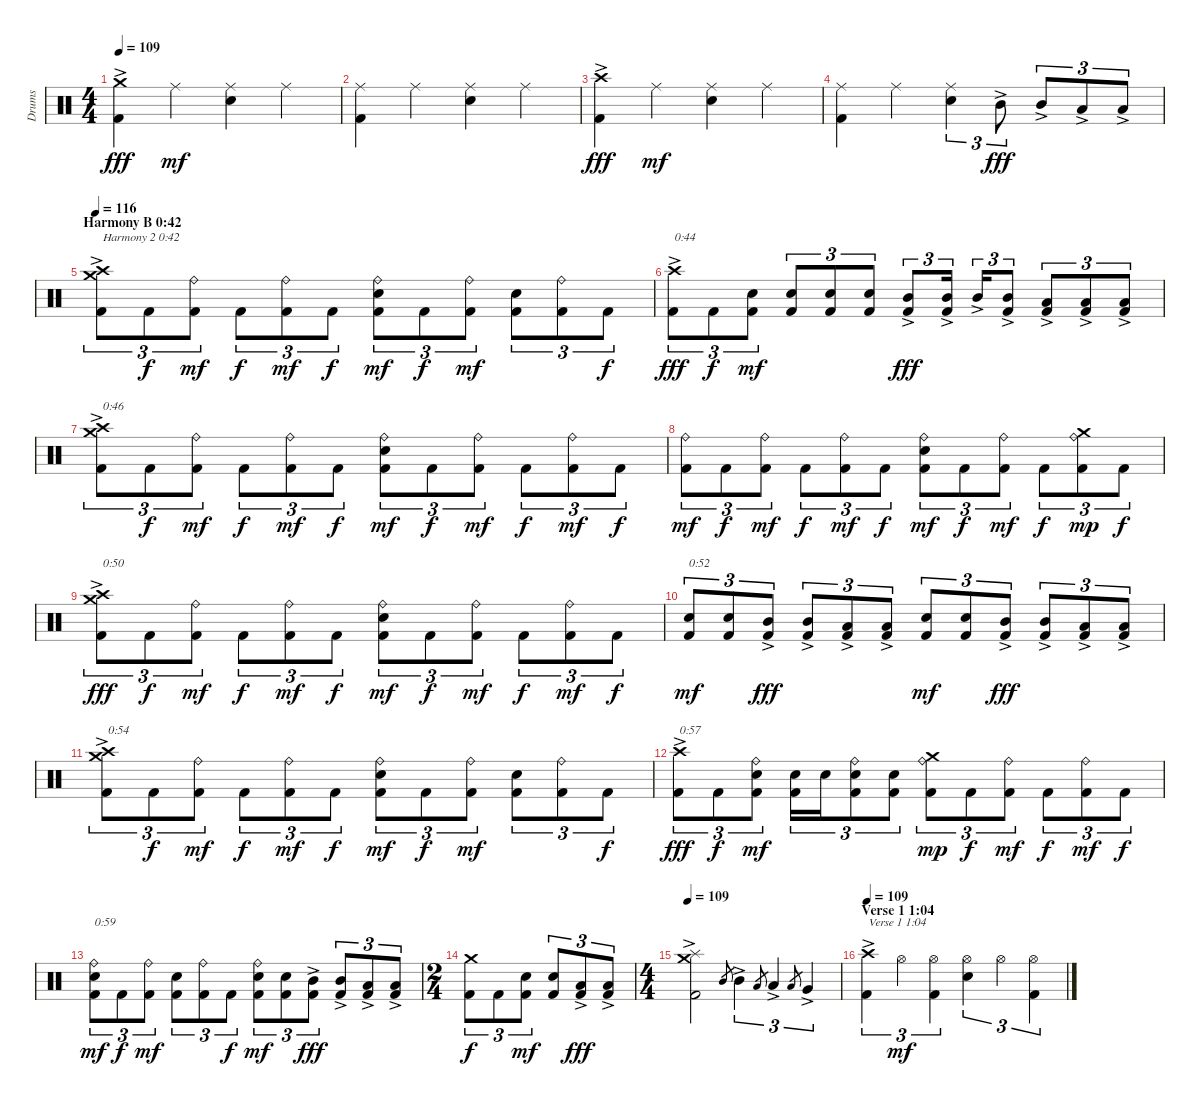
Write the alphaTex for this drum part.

\track ("Drums" "Drums") {instrument percussion}
\staff {score}
\articulation defaults
\ts (4 4)
\tempo 109
\clef neutral
\ks c
("Kick (hit) 2" "Crash medium (hit)"{ac}).4{dy fff} "Ride (middle)".4{dy mf} ("Electric Snare (hit)" "Ride (middle)").4 "Ride (middle)".4 |
("Kick (hit) 2" "Ride (middle)").4 "Ride (middle)".4 ("Electric Snare (hit)" "Ride (middle)").4 "Ride (middle)".4 |
("Kick (hit) 2" "Crash high (hit)"{ac}).4{dy fff} "Ride (middle)".4{dy mf} ("Electric Snare (hit)" "Ride (middle)").4 "Ride (middle)".4 |
("Kick (hit) 2" "Ride (middle)").4 "Ride (middle)".4 ("Electric Snare (hit)" "Ride (middle)").4{tu (3 2)} "Mid Tom (hit)"{ac}.8{tu (3 2) dy fff} "Mid Tom (hit)"{ac}.8{tu (3 2)} "Low Tom (hit)"{ac}.8{tu (3 2)} "Low Tom (hit)"{ac}.8{tu (3 2)} |
\section ("" "Harmony B 0:42")
\tempo 116
("Kick (hit) 2" "Crash medium (hit)"{ac} "Crash high (hit)"{ac}).8{tu (3 2) txt "Harmony 2 0:42"} "Kick (hit) 2".8{tu (3 2) dy f} ("Kick (hit) 2" "Ride (bell)").8{tu (3 2) dy mf} "Kick (hit) 2".8{tu (3 2) dy f} ("Kick (hit) 2" "Ride (bell)").8{tu (3 2) dy mf} "Kick (hit) 2".8{tu (3 2) dy f} ("Kick (hit) 2" "Electric Snare (hit)" "Ride (bell)").8{tu (3 2) dy mf} "Kick (hit) 2".8{tu (3 2) dy f} ("Kick (hit) 2" "Ride (bell)").8{tu (3 2) dy mf} ("Kick (hit) 2" "Electric Snare (hit)").8{tu (3 2)} ("Kick (hit) 2" "Ride (bell)").8{tu (3 2)} "Kick (hit) 2".8{tu (3 2) dy f} |
("Kick (hit) 2" "Crash high (hit)"{ac}).8{tu (3 2) txt "0:44" dy fff} "Kick (hit) 2".8{tu (3 2) dy f} ("Kick (hit) 2" "Electric Snare (hit)").8{tu (3 2) dy mf} ("Kick (hit) 2" "Electric Snare (hit)").8{tu (3 2)} ("Kick (hit) 2" "Electric Snare (hit)").8{tu (3 2)} ("Kick (hit) 2" "Electric Snare (hit)").8{tu (3 2)} ("Kick (hit) 2" "Mid Tom (hit)"{ac}).8{tu (3 2) dy fff} ("Kick (hit) 2" "Mid Tom (hit)"{ac}).16{tu (3 2)} "Mid Tom (hit)"{ac}.16{tu (3 2)} ("Kick (hit) 2" "Mid Tom (hit)"{ac}).8{tu (3 2)} ("Kick (hit) 2" "Low Tom (hit)"{ac}).8{tu (3 2)} ("Kick (hit) 2" "Low Tom (hit)"{ac}).8{tu (3 2)} ("Kick (hit) 2" "Low Tom (hit)"{ac}).8{tu (3 2)} |
("Kick (hit) 2" "Crash medium (hit)"{ac} "Crash high (hit)"{ac}).8{tu (3 2) txt "0:46"} "Kick (hit) 2".8{tu (3 2) dy f} ("Kick (hit) 2" "Ride (bell)").8{tu (3 2) dy mf} "Kick (hit) 2".8{tu (3 2) dy f} ("Kick (hit) 2" "Ride (bell)").8{tu (3 2) dy mf} "Kick (hit) 2".8{tu (3 2) dy f} ("Kick (hit) 2" "Electric Snare (hit)" "Ride (bell)").8{tu (3 2) dy mf} "Kick (hit) 2".8{tu (3 2) dy f} ("Kick (hit) 2" "Ride (bell)").8{tu (3 2) dy mf} "Kick (hit) 2".8{tu (3 2) dy f} ("Kick (hit) 2" "Ride (bell)").8{tu (3 2) dy mf} "Kick (hit) 2".8{tu (3 2) dy f} |
("Kick (hit) 2" "Ride (bell)").8{tu (3 2) dy mf} "Kick (hit) 2".8{tu (3 2) dy f} ("Kick (hit) 2" "Ride (bell)").8{tu (3 2) dy mf} "Kick (hit) 2".8{tu (3 2) dy f} ("Kick (hit) 2" "Ride (bell)").8{tu (3 2) dy mf} "Kick (hit) 2".8{tu (3 2) dy f} ("Kick (hit) 2" "Electric Snare (hit)" "Ride (bell)").8{tu (3 2) dy mf} "Kick (hit) 2".8{tu (3 2) dy f} ("Kick (hit) 2" "Ride (bell)").8{tu (3 2) dy mf} "Kick (hit) 2".8{tu (3 2) dy f} ("Kick (hit) 2" "Ride (bell)" "Crash medium (hit)").8{tu (3 2) dy mp} "Kick (hit) 2".8{tu (3 2) dy f} |
("Kick (hit) 2" "Crash high (hit)" "Crash medium (hit)"{ac}).8{tu (3 2) txt "0:50" dy fff} "Kick (hit) 2".8{tu (3 2) dy f} ("Kick (hit) 2" "Ride (bell)").8{tu (3 2) dy mf} "Kick (hit) 2".8{tu (3 2) dy f} ("Kick (hit) 2" "Ride (bell)").8{tu (3 2) dy mf} "Kick (hit) 2".8{tu (3 2) dy f} ("Kick (hit) 2" "Electric Snare (hit)" "Ride (bell)").8{tu (3 2) dy mf} "Kick (hit) 2".8{tu (3 2) dy f} ("Kick (hit) 2" "Ride (bell)").8{tu (3 2) dy mf} "Kick (hit) 2".8{tu (3 2) dy f} ("Kick (hit) 2" "Ride (bell)").8{tu (3 2) dy mf} "Kick (hit) 2".8{tu (3 2) dy f} |
("Kick (hit) 2" "Electric Snare (hit)").8{tu (3 2) txt "0:52" dy mf} ("Kick (hit) 2" "Electric Snare (hit)").8{tu (3 2)} ("Kick (hit) 2" "Mid Tom (hit)"{ac}).8{tu (3 2) dy fff} ("Kick (hit) 2" "Mid Tom (hit)"{ac}).8{tu (3 2)} ("Kick (hit) 2" "Low Tom (hit)"{ac}).8{tu (3 2)} ("Kick (hit) 2" "Low Tom (hit)"{ac}).8{tu (3 2)} ("Kick (hit) 2" "Electric Snare (hit)").8{tu (3 2) dy mf} ("Kick (hit) 2" "Electric Snare (hit)").8{tu (3 2)} ("Kick (hit) 2" "Mid Tom (hit)"{ac}).8{tu (3 2) dy fff} ("Kick (hit) 2" "Mid Tom (hit)"{ac}).8{tu (3 2)} ("Kick (hit) 2" "Low Tom (hit)"{ac}).8{tu (3 2)} ("Kick (hit) 2" "Low Tom (hit)"{ac}).8{tu (3 2)} |
("Kick (hit) 2" "Crash medium (hit)"{ac} "Crash high (hit)"{ac}).8{tu (3 2) txt "0:54"} "Kick (hit) 2".8{tu (3 2) dy f} ("Kick (hit) 2" "Ride (bell)").8{tu (3 2) dy mf} "Kick (hit) 2".8{tu (3 2) dy f} ("Kick (hit) 2" "Ride (bell)").8{tu (3 2) dy mf} "Kick (hit) 2".8{tu (3 2) dy f} ("Kick (hit) 2" "Electric Snare (hit)" "Ride (bell)").8{tu (3 2) dy mf} "Kick (hit) 2".8{tu (3 2) dy f} ("Kick (hit) 2" "Ride (bell)").8{tu (3 2) dy mf} ("Kick (hit) 2" "Electric Snare (hit)").8{tu (3 2)} ("Kick (hit) 2" "Ride (bell)").8{tu (3 2)} "Kick (hit) 2".8{tu (3 2) dy f} |
("Kick (hit) 2" "Crash high (hit)"{ac}).8{tu (3 2) txt "0:57" dy fff} "Kick (hit) 2".8{tu (3 2) dy f} ("Kick (hit) 2" "Electric Snare (hit)" "Ride (bell)").8{tu (3 2) dy mf} ("Kick (hit) 2" "Electric Snare (hit)").16{tu (3 2)} "Electric Snare (hit)".16{tu (3 2)} ("Kick (hit) 2" "Electric Snare (hit)" "Ride (bell)").8{tu (3 2)} ("Kick (hit) 2" "Electric Snare (hit)").8{tu (3 2)} ("Kick (hit) 2" "Ride (bell)" "Crash medium (hit)").8{tu (3 2) dy mp} "Kick (hit) 2".8{tu (3 2) dy f} ("Kick (hit) 2" "Ride (bell)").8{tu (3 2) dy mf} "Kick (hit) 2".8{tu (3 2) dy f} ("Kick (hit) 2" "Ride (bell)").8{tu (3 2) dy mf} "Kick (hit) 2".8{tu (3 2) dy f} |
("Kick (hit) 2" "Electric Snare (hit)" "Ride (bell)").8{tu (3 2) txt "0:59" dy mf} "Kick (hit) 2".8{tu (3 2) dy f} ("Kick (hit) 2" "Ride (bell)").8{tu (3 2) dy mf} ("Kick (hit) 2" "Electric Snare (hit)").8{tu (3 2)} ("Kick (hit) 2" "Ride (bell)").8{tu (3 2)} "Kick (hit) 2".8{tu (3 2) dy f} ("Kick (hit) 2" "Electric Snare (hit)" "Ride (bell)").8{tu (3 2) dy mf} ("Kick (hit) 2" "Electric Snare (hit)").8{tu (3 2)} ("Kick (hit) 2" "Mid Tom (hit)"{ac}).8{tu (3 2) dy fff} ("Kick (hit) 2" "Mid Tom (hit)"{ac}).8{tu (3 2)} ("Kick (hit) 2" "Low Tom (hit)"{ac}).8{tu (3 2)} ("Kick (hit) 2" "Low Tom (hit)"{ac}).8{tu (3 2)} |
\ts (2 4)
("Kick (hit) 2" "Crash medium (hit)").8{tu (3 2) dy f} "Kick (hit) 2".8{tu (3 2)} ("Kick (hit) 2" "Electric Snare (hit)").8{tu (3 2) dy mf} ("Kick (hit) 2" "Electric Snare (hit)").8{tu (3 2)} ("Kick (hit) 2" "Low Tom (hit)"{ac}).8{tu (3 2) dy fff} ("Kick (hit) 2" "Low Tom (hit)"{ac}).8{tu (3 2)} |
\ts (4 4)
\tempo 109
("Kick (hit) 2" "Splash (hit)" "Crash medium (hit)"{ac}).2 "Mid Tom (hit)".8{gr} "Mid Tom (hit)"{ac}.4{tu (3 2)} "Low Tom (hit)".8{gr} "Low Tom (hit)"{ac}.4{tu (3 2)} "Low Tom (hit)".8{gr} "Very Low Tom (hit)"{ac}.4{tu (3 2)} |
\section ("" "Verse 1 1:04")
\tempo 109
("Kick (hit) 2" "Crash high (hit)"{ac}).4{tu (3 2) txt "Verse 1 1:04"} "Hi-Hat (open)".4{tu (3 2) dy mf} ("Kick (hit) 2" "Hi-Hat (open)").4{tu (3 2)} ("Electric Snare (hit)" "Hi-Hat (open)").4{tu (3 2)} "Hi-Hat (open)".4{tu (3 2)} ("Kick (hit) 2" "Hi-Hat (open)").4{tu (3 2)}
